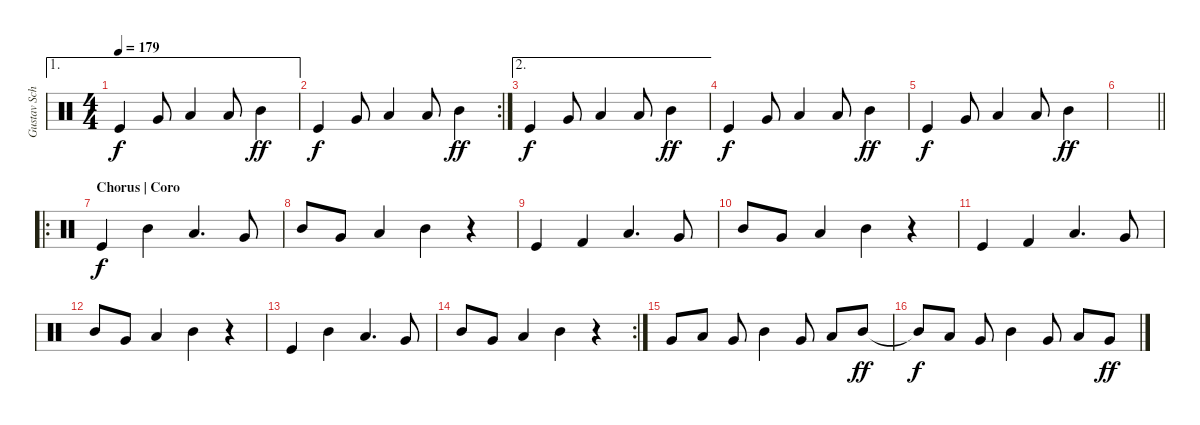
\track ("Gustav Schäfer" "Gustav Sch") {instrument percussion}
\staff {score}
\articulation defaults
\ae 1
\ts (4 4)
\tempo 179
\clef neutral
\ks c "Kick (hit)".4{dy f} "Very Low Tom (hit)".8 "Low Tom (hit)".4 "Low Tom (hit)".8 "Mid Tom (hit)".4{dy ff}
|
\rc 2 "Kick (hit)".4{dy f} "Very Low Tom (hit)".8 "Low Tom (hit)".4 "Low Tom (hit)".8 "Mid Tom (hit)".4{dy ff}
|
\ae 2 "Kick (hit)".4{dy f} "Very Low Tom (hit)".8 "Low Tom (hit)".4 "Low Tom (hit)".8 "Mid Tom (hit)".4{dy ff}
|
"Kick (hit)".4{dy f} "Very Low Tom (hit)".8 "Low Tom (hit)".4 "Low Tom (hit)".8 "Mid Tom (hit)".4{dy ff} |
"Kick (hit)".4{dy f} "Very Low Tom (hit)".8 "Low Tom (hit)".4 "Low Tom (hit)".8 "Mid Tom (hit)".4{dy ff} |
\barLineRight lightlight
|
\ro
\section ("" "Chorus | Coro")
"Kick (hit)".4{dy f} "Mid Tom (hit)".4 "Low Tom (hit)".4{d} "Very Low Tom (hit)".8 |
"Mid Tom (hit)".8 "Very Low Tom (hit)".8 "Low Tom (hit)".4 "Mid Tom (hit)".4 r.4 |
"Kick (hit)".4 "Kick (hit) 2".4 "Low Tom (hit)".4{d} "Very Low Tom (hit)".8 |
"Mid Tom (hit)".8 "Very Low Tom (hit)".8 "Low Tom (hit)".4 "Mid Tom (hit)".4 r.4 |
"Kick (hit)".4 "Kick (hit) 2".4 "Low Tom (hit)".4{d} "Very Low Tom (hit)".8 |
"Mid Tom (hit)".8 "Very Low Tom (hit)".8 "Low Tom (hit)".4 "Mid Tom (hit)".4 r.4 |
"Kick (hit)".4 "Mid Tom (hit)".4 "Low Tom (hit)".4{d} "Very Low Tom (hit)".8 |
\rc 2 "Mid Tom (hit)".8 "Very Low Tom (hit)".8 "Low Tom (hit)".4 "Mid Tom (hit)".4
r.4 |
"Very Low Tom (hit)".8 "Low Tom (hit)".8 "Very Low Tom (hit)".8 "Mid Tom (hit)".4 "Very Low Tom (hit)".8 "Low Tom (hit)".8 "Mid Tom (hit)".8{dy ff} |
"Mid Tom (hit)"{t}.8{dy f} "Low Tom (hit)".8 "Very Low Tom (hit)".8 "Mid Tom (hit)".4 "Very Low Tom (hit)".8 "Low Tom (hit)".8 "Very Low Tom (hit)".8{dy ff}
